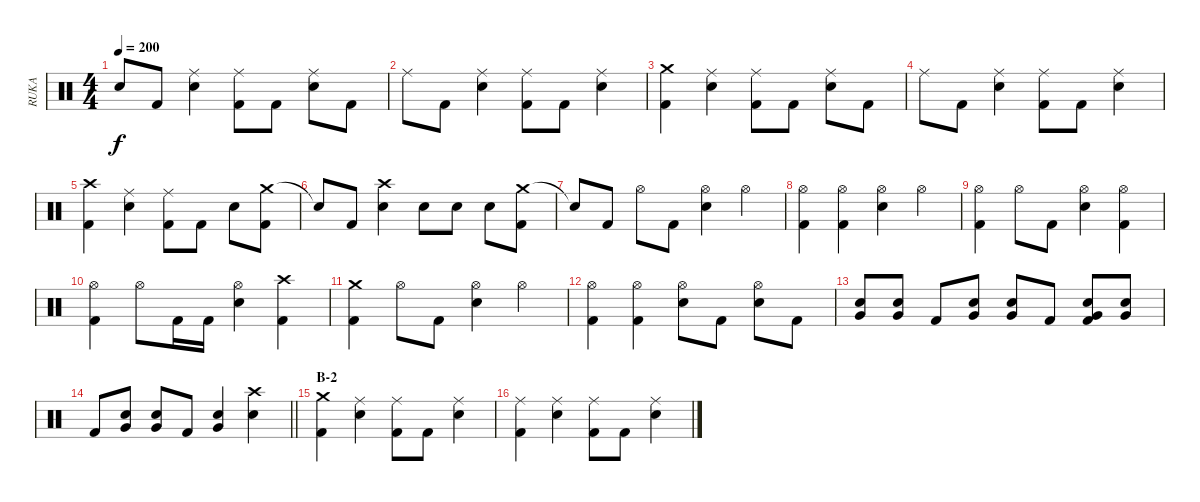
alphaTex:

\track ("RUKA" "RUKA") {instrument percussion}
\staff {score}
\articulation defaults
\ts (4 4)
\tempo 200
\clef neutral
\ks c "Snare (hit)"{t}.8{dy f} "Kick (hit) 2".8
("Ride (middle)" "Snare (hit) 2").4 ("Ride (middle)" "Kick (hit) 2").8 "Kick (hit) 2".8 ("Ride (middle)" "Snare (hit) 2").8 "Kick (hit) 2".8 |
"Ride (middle)".8 "Kick (hit) 2".8 ("Ride (middle)" "Snare (hit) 2").4 ("Ride (middle)" "Kick (hit) 2").8 "Kick (hit) 2".8 ("Ride (middle)" "Snare (hit) 2").4 |
("Crash medium (hit)" "Kick (hit) 2").4 ("Ride (middle)" "Snare (hit) 2").4 ("Ride (middle)" "Kick (hit) 2").8 "Kick (hit) 2".8 ("Ride (middle)" "Snare (hit) 2").8 "Kick (hit) 2".8 |
"Ride (middle)".8 "Kick (hit) 2".8 ("Ride (middle)" "Snare (hit) 2").4 ("Ride (middle)" "Kick (hit) 2").8 "Kick (hit) 2".8 ("Ride (middle)" "Snare (hit) 2").4 |
("Crash high (hit)" "Kick (hit) 2").4 ("Ride (middle)" "Snare (hit) 2").4 ("Ride (middle)" "Kick (hit) 2").8 "Kick (hit) 2".8 "Snare (hit) 2".8 ("Crash medium (hit)" "Kick (hit) 2").8 |
"Snare (hit)"{t}.8 "Kick (hit) 2".8 ("Crash high (hit)" "Snare (hit) 2").4 "Snare (hit) 2".8 "Snare (hit) 2".8 "Snare (hit) 2".8 ("Crash medium (hit)" "Kick (hit) 2").8 |
"Snare (hit)"{t}.8 "Kick (hit) 2".8 "Hi-Hat (open)".8 "Kick (hit) 2".8 ("Hi-Hat (open)" "Snare (hit) 2").4 "Hi-Hat (open)".4 |
("Hi-Hat (open)" "Kick (hit) 2").4 ("Hi-Hat (open)" "Kick (hit) 2").4 ("Hi-Hat (open)" "Snare (hit) 2").4 "Hi-Hat (open)".4 |
("Hi-Hat (open)" "Kick (hit) 2").4 "Hi-Hat (open)".8 "Kick (hit) 2".8 ("Hi-Hat (open)" "Snare (hit) 2").4 ("Hi-Hat (open)" "Kick (hit) 2").4 |
("Hi-Hat (open)" "Kick (hit) 2").4 "Hi-Hat (open)".8 "Kick (hit) 2".16 "Kick (hit) 2".16 ("Hi-Hat (open)" "Snare (hit) 2").4 ("Crash high (hit)" "Kick (hit) 2").4 |
("Crash medium (hit)" "Kick (hit) 2").4 "Hi-Hat (open)".8 "Kick (hit) 2".8 ("Hi-Hat (open)" "Snare (hit) 2").4 "Hi-Hat (open)".4 |
("Hi-Hat (open)" "Kick (hit) 2").4 ("Hi-Hat (open)" "Kick (hit) 2").4 ("Hi-Hat (open)" "Snare (hit) 2").8 "Kick (hit) 2".8 ("Hi-Hat (open)" "Snare (hit) 2").8 "Kick (hit) 2".8 |
("Snare (hit) 2" "Very Low Tom (hit)").8 ("Snare (hit) 2" "Very Low Tom (hit)").8 "Kick (hit) 2".8 ("Snare (hit) 2" "Very Low Tom (hit)").8 ("Snare (hit) 2" "Very Low Tom (hit)").8 "Kick (hit) 2".8 ("Snare (hit) 2" "Very Low Tom (hit)" "Kick (hit) 2").8 ("Snare (hit) 2" "Very Low Tom (hit)").8 |
\barLineRight lightlight "Kick (hit) 2".8
("Snare (hit) 2" "Very Low Tom (hit)").8 ("Snare (hit) 2" "Very Low Tom (hit)").8 "Kick (hit) 2".8 ("Snare (hit) 2" "Very Low Tom (hit)").4 ("Crash high (hit)" "Snare (hit) 2").4 |
\section ("" "B-2")
("Crash medium (hit)" "Kick (hit) 2").4 ("Ride (middle)" "Snare (hit) 2").4 ("Ride (middle)" "Kick (hit) 2").8 "Kick (hit) 2".8 ("Ride (middle)" "Snare (hit) 2").4 |
("Ride (middle)" "Kick (hit) 2").4 ("Ride (middle)" "Snare (hit) 2").4 ("Ride (middle)" "Kick (hit) 2").8 "Kick (hit) 2".8 ("Ride (middle)" "Snare (hit) 2").4
